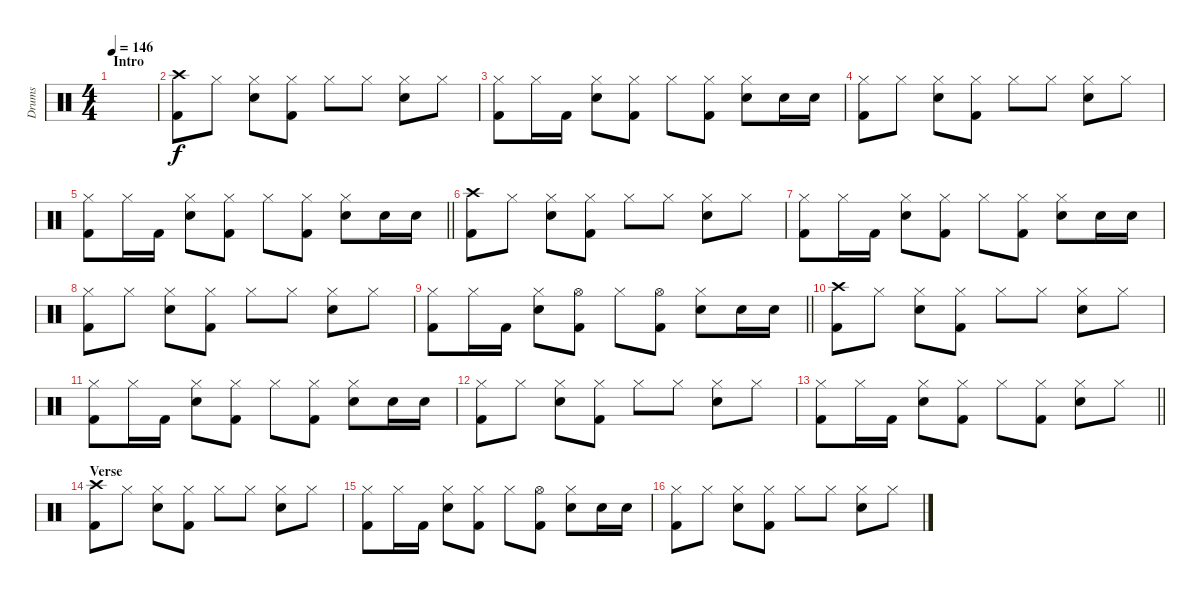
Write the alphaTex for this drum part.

\track ("Drums" "Drums") {instrument percussion}
\staff {score}
\articulation defaults
\ts (4 4)
\section ("" "Intro")
\tempo 146
\clef neutral
\ks c
|
("Crash high (hit)" "Kick (hit) 2").8 "Hi-Hat (closed)".8 ("Hi-Hat (closed)" "Snare (hit) 2").8 ("Hi-Hat (closed)" "Kick (hit) 2").8 "Hi-Hat (closed)".8 "Hi-Hat (closed)".8 ("Hi-Hat (closed)" "Snare (hit) 2").8 "Hi-Hat (closed)".8 |
("Hi-Hat (closed)" "Kick (hit) 2").8 "Hi-Hat (closed)".16 "Kick (hit) 2".16 ("Hi-Hat (closed)" "Snare (hit) 2").8 ("Hi-Hat (closed)" "Kick (hit) 2").8 "Hi-Hat (closed)".8 ("Hi-Hat (closed)" "Kick (hit) 2").8 ("Hi-Hat (closed)" "Snare (hit) 2").8 "Snare (hit) 2".16 "Snare (hit) 2".16 |
("Hi-Hat (closed)" "Kick (hit) 2").8 "Hi-Hat (closed)".8 ("Hi-Hat (closed)" "Snare (hit) 2").8 ("Hi-Hat (closed)" "Kick (hit) 2").8 "Hi-Hat (closed)".8 "Hi-Hat (closed)".8 ("Hi-Hat (closed)" "Snare (hit) 2").8 "Hi-Hat (closed)".8 |
\barLineRight lightlight
("Hi-Hat (closed)" "Kick (hit) 2").8 "Hi-Hat (closed)".16 "Kick (hit) 2".16 ("Hi-Hat (closed)" "Snare (hit) 2").8 ("Hi-Hat (closed)" "Kick (hit) 2").8 "Hi-Hat (closed)".8 ("Hi-Hat (closed)" "Kick (hit) 2").8 ("Hi-Hat (closed)" "Snare (hit) 2").8 "Snare (hit) 2".16 "Snare (hit) 2".16 |
("Crash high (hit)" "Kick (hit) 2").8 "Hi-Hat (closed)".8 ("Hi-Hat (closed)" "Snare (hit) 2").8 ("Hi-Hat (closed)" "Kick (hit) 2").8 "Hi-Hat (closed)".8 "Hi-Hat (closed)".8 ("Hi-Hat (closed)" "Snare (hit) 2").8 "Hi-Hat (closed)".8 |
("Hi-Hat (closed)" "Kick (hit) 2").8 "Hi-Hat (closed)".16 "Kick (hit) 2".16 ("Hi-Hat (closed)" "Snare (hit) 2").8 ("Hi-Hat (closed)" "Kick (hit) 2").8 "Hi-Hat (closed)".8 ("Hi-Hat (closed)" "Kick (hit) 2").8 ("Hi-Hat (closed)" "Snare (hit) 2").8 "Snare (hit) 2".16 "Snare (hit) 2".16 |
("Hi-Hat (closed)" "Kick (hit) 2").8 "Hi-Hat (closed)".8 ("Hi-Hat (closed)" "Snare (hit) 2").8 ("Hi-Hat (closed)" "Kick (hit) 2").8 "Hi-Hat (closed)".8 "Hi-Hat (closed)".8 ("Hi-Hat (closed)" "Snare (hit) 2").8 "Hi-Hat (closed)".8 |
\barLineRight lightlight
("Hi-Hat (closed)" "Kick (hit) 2").8 "Hi-Hat (closed)".16 "Kick (hit) 2".16 ("Hi-Hat (closed)" "Snare (hit) 2").8 ("Hi-Hat (open)" "Kick (hit) 2").8 "Hi-Hat (closed)".8 ("Hi-Hat (open)" "Kick (hit) 2").8 ("Hi-Hat (closed)" "Snare (hit) 2").8 "Snare (hit) 2".16 "Snare (hit) 2".16 |
("Crash high (hit)" "Kick (hit) 2").8 "Hi-Hat (closed)".8 ("Hi-Hat (closed)" "Snare (hit) 2").8 ("Hi-Hat (closed)" "Kick (hit) 2").8 "Hi-Hat (closed)".8 "Hi-Hat (closed)".8 ("Hi-Hat (closed)" "Snare (hit) 2").8 "Hi-Hat (closed)".8 |
("Hi-Hat (closed)" "Kick (hit) 2").8 "Hi-Hat (closed)".16 "Kick (hit) 2".16 ("Hi-Hat (closed)" "Snare (hit) 2").8 ("Hi-Hat (closed)" "Kick (hit) 2").8 "Hi-Hat (closed)".8 ("Hi-Hat (closed)" "Kick (hit) 2").8 ("Hi-Hat (closed)" "Snare (hit) 2").8 "Snare (hit) 2".16 "Snare (hit) 2".16 |
("Hi-Hat (closed)" "Kick (hit) 2").8 "Hi-Hat (closed)".8 ("Hi-Hat (closed)" "Snare (hit) 2").8 ("Hi-Hat (closed)" "Kick (hit) 2").8 "Hi-Hat (closed)".8 "Hi-Hat (closed)".8 ("Hi-Hat (closed)" "Snare (hit) 2").8 "Hi-Hat (closed)".8 |
\barLineRight lightlight
("Hi-Hat (closed)" "Kick (hit) 2").8 "Hi-Hat (closed)".16 "Kick (hit) 2".16 ("Hi-Hat (closed)" "Snare (hit) 2").8 ("Hi-Hat (closed)" "Kick (hit) 2").8 "Hi-Hat (closed)".8 ("Hi-Hat (closed)" "Kick (hit) 2").8 ("Hi-Hat (closed)" "Snare (hit) 2").8 "Hi-Hat (closed)".8 |
\section ("" "Verse")
("Crash high (hit)" "Kick (hit) 2").8 "Hi-Hat (closed)".8 ("Hi-Hat (closed)" "Snare (hit) 2").8 ("Hi-Hat (closed)" "Kick (hit) 2").8 "Hi-Hat (closed)".8 "Hi-Hat (closed)".8 ("Hi-Hat (closed)" "Snare (hit) 2").8 "Hi-Hat (closed)".8 |
("Hi-Hat (closed)" "Kick (hit) 2").8 "Hi-Hat (closed)".16 "Kick (hit) 2".16 ("Hi-Hat (closed)" "Snare (hit) 2").8 ("Hi-Hat (closed)" "Kick (hit) 2").8 "Hi-Hat (closed)".8 ("Hi-Hat (open)" "Kick (hit) 2").8 ("Hi-Hat (closed)" "Snare (hit) 2").8 "Snare (hit) 2".16 "Snare (hit) 2".16 |
("Hi-Hat (closed)" "Kick (hit) 2").8 "Hi-Hat (closed)".8 ("Hi-Hat (closed)" "Snare (hit) 2").8 ("Hi-Hat (closed)" "Kick (hit) 2").8 "Hi-Hat (closed)".8 "Hi-Hat (closed)".8 ("Hi-Hat (closed)" "Snare (hit) 2").8 "Hi-Hat (closed)".8
